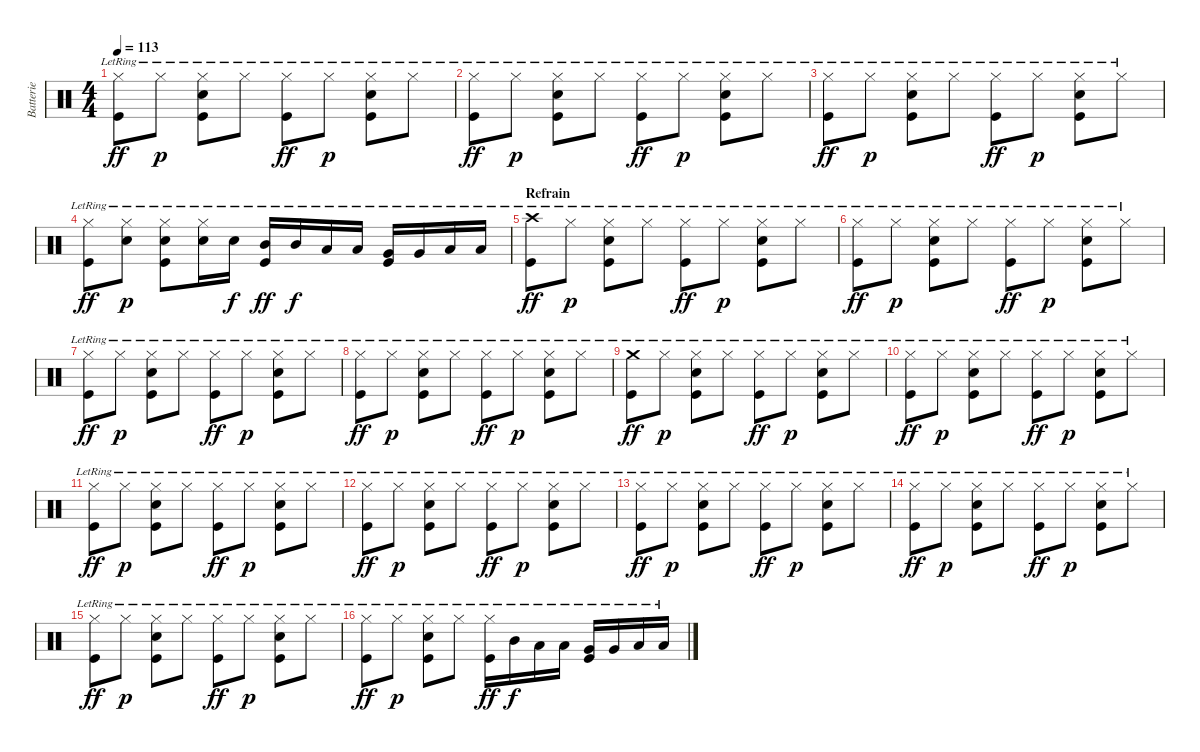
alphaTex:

\track ("Batterie" "Batterie") {instrument percussion}
\staff {score}
\articulation defaults
\ts (4 4)
\tempo 113
\clef neutral
\ks c
("Hi-Hat (closed)"{lr} "Kick (hit)"{lr}).8{dy ff} "Hi-Hat (closed)"{lr}.8{dy p} ("Hi-Hat (closed)"{lr} "Snare (hit) 2"{lr} "Kick (hit)"{lr}).8 "Hi-Hat (closed)"{lr}.8 ("Hi-Hat (closed)"{lr} "Kick (hit)"{lr}).8{dy ff} "Hi-Hat (closed)"{lr}.8{dy p} ("Hi-Hat (closed)"{lr} "Snare (hit) 2"{lr} "Kick (hit)"{lr}).8 "Hi-Hat (closed)"{lr}.8 |
("Hi-Hat (closed)"{lr} "Kick (hit)"{lr}).8{dy ff} "Hi-Hat (closed)"{lr}.8{dy p} ("Hi-Hat (closed)"{lr} "Snare (hit) 2"{lr} "Kick (hit)"{lr}).8 "Hi-Hat (closed)"{lr}.8 ("Hi-Hat (closed)"{lr} "Kick (hit)"{lr}).8{dy ff} "Hi-Hat (closed)"{lr}.8{dy p} ("Hi-Hat (closed)"{lr} "Snare (hit) 2"{lr} "Kick (hit)"{lr}).8 "Hi-Hat (closed)"{lr}.8 |
("Hi-Hat (closed)"{lr} "Kick (hit)"{lr}).8{dy ff} "Hi-Hat (closed)"{lr}.8{dy p} ("Hi-Hat (closed)"{lr} "Snare (hit) 2"{lr} "Kick (hit)"{lr}).8 "Hi-Hat (closed)"{lr}.8 ("Hi-Hat (closed)"{lr} "Kick (hit)"{lr}).8{dy ff} "Hi-Hat (closed)"{lr}.8{dy p} ("Hi-Hat (closed)"{lr} "Snare (hit) 2"{lr} "Kick (hit)"{lr}).8 "Hi-Hat (closed)"{lr}.8 |
("Hi-Hat (closed)"{lr} "Kick (hit)"{lr}).8{dy ff} ("Hi-Hat (closed)"{lr} "Snare (hit) 2"{lr}).8{dy p} ("Hi-Hat (closed)"{lr} "Snare (hit) 2"{lr} "Kick (hit)"{lr}).8 ("Hi-Hat (closed)"{lr} "Snare (hit) 2"{lr}).16 "Snare (hit) 2"{lr}.16{dy f} ("Mid Tom (hit)"{lr} "Kick (hit)"{lr}).16{dy ff} "Mid Tom (hit)"{lr}.16{dy f} "Low Tom (hit)"{lr}.16 "Low Tom (hit)"{lr}.16 ("Very Low Tom (hit)"{lr} "Kick (hit)"{lr}).16 "Very Low Tom (hit)"{lr}.16 "Low Floor Tom (hit)"{lr}.16 "Low Floor Tom (hit)"{lr}.16 |
\section ("" "Refrain")
("Crash high (hit)"{lr} "Kick (hit)"{lr}).8{dy ff} "Hi-Hat (closed)"{lr}.8{dy p} ("Hi-Hat (closed)"{lr} "Snare (hit) 2"{lr} "Kick (hit)"{lr}).8 "Hi-Hat (closed)"{lr}.8 ("Hi-Hat (closed)"{lr} "Kick (hit)"{lr}).8{dy ff} "Hi-Hat (closed)"{lr}.8{dy p} ("Hi-Hat (closed)"{lr} "Snare (hit) 2"{lr} "Kick (hit)"{lr}).8 "Hi-Hat (closed)"{lr}.8 |
("Hi-Hat (closed)"{lr} "Kick (hit)"{lr}).8{dy ff} "Hi-Hat (closed)"{lr}.8{dy p} ("Hi-Hat (closed)"{lr} "Snare (hit) 2"{lr} "Kick (hit)"{lr}).8 "Hi-Hat (closed)"{lr}.8 ("Hi-Hat (closed)"{lr} "Kick (hit)"{lr}).8{dy ff} "Hi-Hat (closed)"{lr}.8{dy p} ("Hi-Hat (closed)"{lr} "Snare (hit) 2"{lr} "Kick (hit)"{lr}).8 "Hi-Hat (closed)"{lr}.8 |
("Hi-Hat (closed)"{lr} "Kick (hit)"{lr}).8{dy ff} "Hi-Hat (closed)"{lr}.8{dy p} ("Hi-Hat (closed)"{lr} "Snare (hit) 2"{lr} "Kick (hit)"{lr}).8 "Hi-Hat (closed)"{lr}.8 ("Hi-Hat (closed)"{lr} "Kick (hit)"{lr}).8{dy ff} "Hi-Hat (closed)"{lr}.8{dy p} ("Hi-Hat (closed)"{lr} "Snare (hit) 2"{lr} "Kick (hit)"{lr}).8 "Hi-Hat (closed)"{lr}.8 |
("Hi-Hat (closed)"{lr} "Kick (hit)"{lr}).8{dy ff} "Hi-Hat (closed)"{lr}.8{dy p} ("Hi-Hat (closed)"{lr} "Snare (hit) 2"{lr} "Kick (hit)"{lr}).8 "Hi-Hat (closed)"{lr}.8 ("Hi-Hat (closed)"{lr} "Kick (hit)"{lr}).8{dy ff} "Hi-Hat (closed)"{lr}.8{dy p} ("Hi-Hat (closed)"{lr} "Snare (hit) 2"{lr} "Kick (hit)"{lr}).8 "Hi-Hat (closed)"{lr}.8 |
("Crash medium (hit)"{lr} "Kick (hit)"{lr}).8{dy ff} "Hi-Hat (closed)"{lr}.8{dy p} ("Hi-Hat (closed)"{lr} "Snare (hit) 2"{lr} "Kick (hit)"{lr}).8 "Hi-Hat (closed)"{lr}.8 ("Hi-Hat (closed)"{lr} "Kick (hit)"{lr}).8{dy ff} "Hi-Hat (closed)"{lr}.8{dy p} ("Hi-Hat (closed)"{lr} "Snare (hit) 2"{lr} "Kick (hit)"{lr}).8 "Hi-Hat (closed)"{lr}.8 |
("Hi-Hat (closed)"{lr} "Kick (hit)"{lr}).8{dy ff} "Hi-Hat (closed)"{lr}.8{dy p} ("Hi-Hat (closed)"{lr} "Snare (hit) 2"{lr} "Kick (hit)"{lr}).8 "Hi-Hat (closed)"{lr}.8 ("Hi-Hat (closed)"{lr} "Kick (hit)"{lr}).8{dy ff} "Hi-Hat (closed)"{lr}.8{dy p} ("Hi-Hat (closed)"{lr} "Snare (hit) 2"{lr} "Kick (hit)"{lr}).8 "Hi-Hat (closed)"{lr}.8 |
("Hi-Hat (closed)"{lr} "Kick (hit)"{lr}).8{dy ff} "Hi-Hat (closed)"{lr}.8{dy p} ("Hi-Hat (closed)"{lr} "Snare (hit) 2"{lr} "Kick (hit)"{lr}).8 "Hi-Hat (closed)"{lr}.8 ("Hi-Hat (closed)"{lr} "Kick (hit)"{lr}).8{dy ff} "Hi-Hat (closed)"{lr}.8{dy p} ("Hi-Hat (closed)"{lr} "Snare (hit) 2"{lr} "Kick (hit)"{lr}).8 "Hi-Hat (closed)"{lr}.8 |
("Hi-Hat (closed)"{lr} "Kick (hit)"{lr}).8{dy ff} "Hi-Hat (closed)"{lr}.8{dy p} ("Hi-Hat (closed)"{lr} "Snare (hit) 2"{lr} "Kick (hit)"{lr}).8 "Hi-Hat (closed)"{lr}.8 ("Hi-Hat (closed)"{lr} "Kick (hit)"{lr}).8{dy ff} "Hi-Hat (closed)"{lr}.8{dy p} ("Hi-Hat (closed)"{lr} "Snare (hit) 2"{lr} "Kick (hit)"{lr}).8 "Hi-Hat (closed)"{lr}.8 |
("Hi-Hat (closed)"{lr} "Kick (hit)"{lr}).8{dy ff} "Hi-Hat (closed)"{lr}.8{dy p} ("Hi-Hat (closed)"{lr} "Snare (hit) 2"{lr} "Kick (hit)"{lr}).8 "Hi-Hat (closed)"{lr}.8 ("Hi-Hat (closed)"{lr} "Kick (hit)"{lr}).8{dy ff} "Hi-Hat (closed)"{lr}.8{dy p} ("Hi-Hat (closed)"{lr} "Snare (hit) 2"{lr} "Kick (hit)"{lr}).8 "Hi-Hat (closed)"{lr}.8 |
("Hi-Hat (closed)"{lr} "Kick (hit)"{lr}).8{dy ff} "Hi-Hat (closed)"{lr}.8{dy p} ("Hi-Hat (closed)"{lr} "Snare (hit) 2"{lr} "Kick (hit)"{lr}).8 "Hi-Hat (closed)"{lr}.8 ("Hi-Hat (closed)"{lr} "Kick (hit)"{lr}).8{dy ff} "Hi-Hat (closed)"{lr}.8{dy p} ("Hi-Hat (closed)"{lr} "Snare (hit) 2"{lr} "Kick (hit)"{lr}).8 "Hi-Hat (closed)"{lr}.8 |
("Hi-Hat (closed)"{lr} "Kick (hit)"{lr}).8{dy ff} "Hi-Hat (closed)"{lr}.8{dy p} ("Hi-Hat (closed)"{lr} "Snare (hit) 2"{lr} "Kick (hit)"{lr}).8 "Hi-Hat (closed)"{lr}.8 ("Hi-Hat (closed)"{lr} "Kick (hit)"{lr}).8{dy ff} "Hi-Hat (closed)"{lr}.8{dy p} ("Hi-Hat (closed)"{lr} "Snare (hit) 2"{lr} "Kick (hit)"{lr}).8 "Hi-Hat (closed)"{lr}.8 |
("Hi-Hat (closed)"{lr} "Kick (hit)"{lr}).8{dy ff} "Hi-Hat (closed)"{lr}.8{dy p} ("Hi-Hat (closed)"{lr} "Snare (hit) 2"{lr} "Kick (hit)"{lr}).8 "Hi-Hat (closed)"{lr}.8 ("Hi-Hat (closed)"{lr} "Kick (hit)"{lr}).16{dy ff} "Mid Tom (hit)"{lr}.16{dy f} "Low Tom (hit)"{lr}.16 "Low Tom (hit)"{lr}.16 ("Very Low Tom (hit)"{lr} "Kick (hit)"{lr}).16 "Very Low Tom (hit)"{lr}.16 "Low Floor Tom (hit)"{lr}.16 "Low Floor Tom (hit)"{lr}.16
